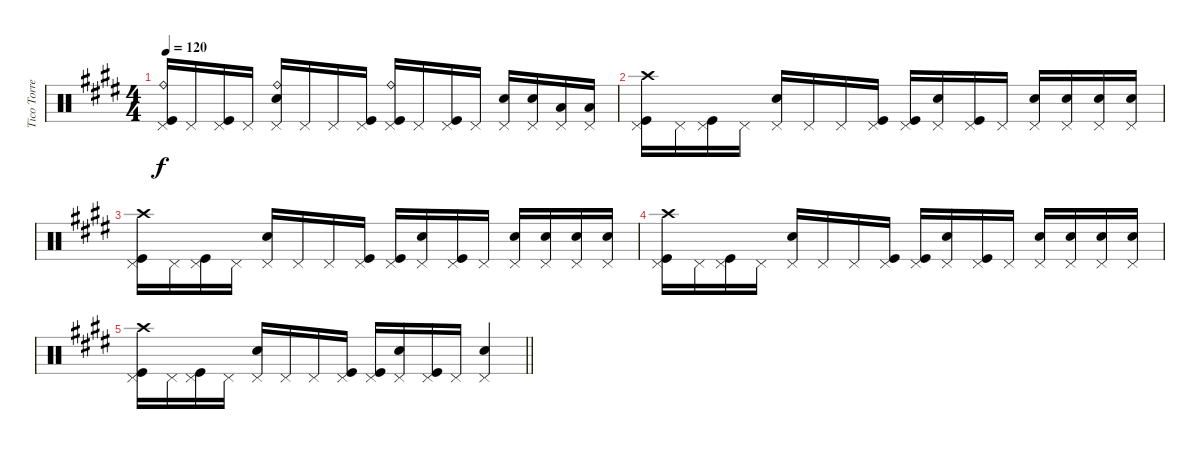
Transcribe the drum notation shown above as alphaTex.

\track ("Tico Torres (Drums)" "Tico Torre") {instrument percussion}
\staff {score}
\articulation defaults
\ts (4 4)
\tempo 120
\clef neutral
\ks c#minor
("Ride (bell)" "Pedal Hi-Hat (hit)" "Kick (hit)").16{dy f} "Pedal Hi-Hat (hit)".16 ("Pedal Hi-Hat (hit)" "Kick (hit)").16 "Pedal Hi-Hat (hit)".16 ("Ride (bell)" "Electric Snare (hit)" "Pedal Hi-Hat (hit)").16 "Pedal Hi-Hat (hit)".16 "Pedal Hi-Hat (hit)".16 ("Pedal Hi-Hat (hit)" "Kick (hit)").16 ("Ride (bell)" "Pedal Hi-Hat (hit)" "Kick (hit)").16 "Pedal Hi-Hat (hit)".16 ("Pedal Hi-Hat (hit)" "Kick (hit)").16 "Pedal Hi-Hat (hit)".16 ("Electric Snare (hit)" "Pedal Hi-Hat (hit)").16 ("Electric Snare (hit)" "Pedal Hi-Hat (hit)").16 ("Low Tom (hit)" "Pedal Hi-Hat (hit)").16 ("Low Tom (hit)" "Pedal Hi-Hat (hit)").16 |
("Crash high (hit)" "Pedal Hi-Hat (hit)" "Kick (hit)").16 "Pedal Hi-Hat (hit)".16 ("Pedal Hi-Hat (hit)" "Kick (hit)").16 "Pedal Hi-Hat (hit)".16 ("Electric Snare (hit)" "Pedal Hi-Hat (hit)").16 "Pedal Hi-Hat (hit)".16 "Pedal Hi-Hat (hit)".16 ("Pedal Hi-Hat (hit)" "Kick (hit)").16 ("Pedal Hi-Hat (hit)" "Kick (hit)").16 ("Electric Snare (hit)" "Pedal Hi-Hat (hit)").16 ("Pedal Hi-Hat (hit)" "Kick (hit)").16 "Pedal Hi-Hat (hit)".16 ("Electric Snare (hit)" "Pedal Hi-Hat (hit)").16 ("Electric Snare (hit)" "Pedal Hi-Hat (hit)").16 ("Electric Snare (hit)" "Pedal Hi-Hat (hit)").16 ("Electric Snare (hit)" "Pedal Hi-Hat (hit)").16 |
("Crash high (hit)" "Pedal Hi-Hat (hit)" "Kick (hit)").16 "Pedal Hi-Hat (hit)".16 ("Pedal Hi-Hat (hit)" "Kick (hit)").16 "Pedal Hi-Hat (hit)".16 ("Electric Snare (hit)" "Pedal Hi-Hat (hit)").16 "Pedal Hi-Hat (hit)".16 "Pedal Hi-Hat (hit)".16 ("Pedal Hi-Hat (hit)" "Kick (hit)").16 ("Pedal Hi-Hat (hit)" "Kick (hit)").16 ("Electric Snare (hit)" "Pedal Hi-Hat (hit)").16 ("Pedal Hi-Hat (hit)" "Kick (hit)").16 "Pedal Hi-Hat (hit)".16 ("Electric Snare (hit)" "Pedal Hi-Hat (hit)").16 ("Electric Snare (hit)" "Pedal Hi-Hat (hit)").16 ("Electric Snare (hit)" "Pedal Hi-Hat (hit)").16 ("Electric Snare (hit)" "Pedal Hi-Hat (hit)").16 |
("Crash high (hit)" "Pedal Hi-Hat (hit)" "Kick (hit)").16 "Pedal Hi-Hat (hit)".16 ("Pedal Hi-Hat (hit)" "Kick (hit)").16 "Pedal Hi-Hat (hit)".16 ("Electric Snare (hit)" "Pedal Hi-Hat (hit)").16 "Pedal Hi-Hat (hit)".16 "Pedal Hi-Hat (hit)".16 ("Pedal Hi-Hat (hit)" "Kick (hit)").16 ("Pedal Hi-Hat (hit)" "Kick (hit)").16 ("Electric Snare (hit)" "Pedal Hi-Hat (hit)").16 ("Pedal Hi-Hat (hit)" "Kick (hit)").16 "Pedal Hi-Hat (hit)".16 ("Electric Snare (hit)" "Pedal Hi-Hat (hit)").16 ("Electric Snare (hit)" "Pedal Hi-Hat (hit)").16 ("Electric Snare (hit)" "Pedal Hi-Hat (hit)").16 ("Electric Snare (hit)" "Pedal Hi-Hat (hit)").16 |
\barLineRight lightlight
("Crash high (hit)" "Pedal Hi-Hat (hit)" "Kick (hit)").16 "Pedal Hi-Hat (hit)".16 ("Pedal Hi-Hat (hit)" "Kick (hit)").16 "Pedal Hi-Hat (hit)".16 ("Electric Snare (hit)" "Pedal Hi-Hat (hit)").16 "Pedal Hi-Hat (hit)".16 "Pedal Hi-Hat (hit)".16 ("Pedal Hi-Hat (hit)" "Kick (hit)").16 ("Pedal Hi-Hat (hit)" "Kick (hit)").16 ("Electric Snare (hit)" "Pedal Hi-Hat (hit)").16 ("Pedal Hi-Hat (hit)" "Kick (hit)").16 "Pedal Hi-Hat (hit)".16 ("Electric Snare (hit)" "Pedal Hi-Hat (hit)").4
